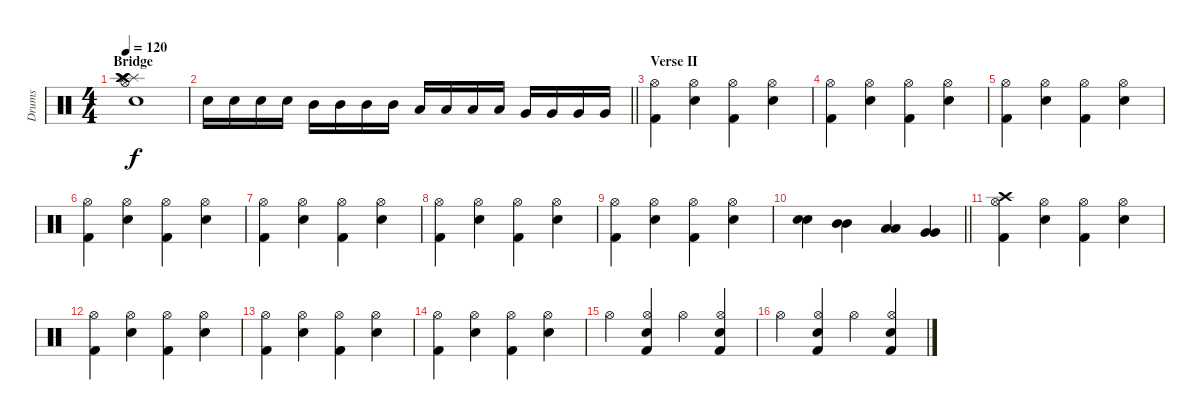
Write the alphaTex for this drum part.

\track ("Drums" "Drums") {instrument percussion}
\staff {score}
\articulation defaults
\ts (4 4)
\section ("" "Bridge")
\tempo 120
\clef neutral
\ks c
("Splash (hit)" "Splash (hit)" "Crash high (hit)" "Crash high (hit)" "Snare (hit) 2" "Hi-Hat (open)").1{dy f} |
\barLineRight lightlight "Snare (hit) 2".16 "Snare (hit) 2".16 "Snare (hit) 2".16 "Snare (hit) 2".16 "Mid Tom (hit)".16 "Mid Tom (hit)".16 "Mid Tom (hit)".16 "Mid Tom (hit)".16 "Low Tom (hit)".16 "Low Tom (hit)".16 "Low Tom (hit)".16 "Low Tom (hit)".16 "Very Low Tom (hit)".16 "Very Low Tom (hit)".16 "Very Low Tom (hit)".16 "Very Low Tom (hit)".16
|
\section ("" "Verse II")
("Kick (hit) 2" "Hi-Hat (open)").4 ("Snare (hit) 2" "Hi-Hat (open)").4 ("Kick (hit) 2" "Hi-Hat (open)").4 ("Snare (hit) 2" "Hi-Hat (open)").4 |
("Kick (hit) 2" "Hi-Hat (open)").4 ("Snare (hit) 2" "Hi-Hat (open)").4 ("Kick (hit) 2" "Hi-Hat (open)").4 ("Snare (hit) 2" "Hi-Hat (open)").4 |
("Kick (hit) 2" "Hi-Hat (open)").4 ("Snare (hit) 2" "Hi-Hat (open)").4 ("Kick (hit) 2" "Hi-Hat (open)").4 ("Snare (hit) 2" "Hi-Hat (open)").4 |
("Kick (hit) 2" "Hi-Hat (open)").4 ("Snare (hit) 2" "Hi-Hat (open)").4 ("Kick (hit) 2" "Hi-Hat (open)").4 ("Snare (hit) 2" "Hi-Hat (open)").4 |
("Kick (hit) 2" "Hi-Hat (open)").4 ("Snare (hit) 2" "Hi-Hat (open)").4 ("Kick (hit) 2" "Hi-Hat (open)").4 ("Snare (hit) 2" "Hi-Hat (open)").4 |
("Kick (hit) 2" "Hi-Hat (open)").4 ("Snare (hit) 2" "Hi-Hat (open)").4 ("Kick (hit) 2" "Hi-Hat (open)").4 ("Snare (hit) 2" "Hi-Hat (open)").4 |
("Kick (hit) 2" "Hi-Hat (open)").4 ("Snare (hit) 2" "Hi-Hat (open)").4 ("Kick (hit) 2" "Hi-Hat (open)").4 ("Snare (hit) 2" "Hi-Hat (open)").4 |
\barLineRight lightlight
("Snare (hit) 2" "Snare (hit) 2").4 ("Mid Tom (hit)" "Mid Tom (hit)").4 ("Low Tom (hit)" "Low Tom (hit)").4 ("Very Low Tom (hit)" "Very Low Tom (hit)").4 |
("Kick (hit) 2" "Crash high (hit)" "Hi-Hat (open)").4 ("Snare (hit) 2" "Hi-Hat (open)").4 ("Kick (hit) 2" "Hi-Hat (open)").4 ("Snare (hit) 2" "Hi-Hat (open)").4 |
("Kick (hit) 2" "Hi-Hat (open)").4 ("Snare (hit) 2" "Hi-Hat (open)").4 ("Kick (hit) 2" "Hi-Hat (open)").4 ("Snare (hit) 2" "Hi-Hat (open)").4 |
("Kick (hit) 2" "Hi-Hat (open)").4 ("Snare (hit) 2" "Hi-Hat (open)").4 ("Kick (hit) 2" "Hi-Hat (open)").4 ("Snare (hit) 2" "Hi-Hat (open)").4 |
("Kick (hit) 2" "Hi-Hat (open)").4 ("Snare (hit) 2" "Hi-Hat (open)").4 ("Kick (hit) 2" "Hi-Hat (open)").4 ("Snare (hit) 2" "Hi-Hat (open)").4 |
"Hi-Hat (open)".4 ("Kick (hit) 2" "Snare (hit) 2" "Hi-Hat (open)").4 "Hi-Hat (open)".4 ("Kick (hit) 2" "Snare (hit) 2" "Hi-Hat (open)").4 |
"Hi-Hat (open)".4 ("Kick (hit) 2" "Snare (hit) 2" "Hi-Hat (open)").4 "Hi-Hat (open)".4 ("Kick (hit) 2" "Snare (hit) 2" "Hi-Hat (open)").4
